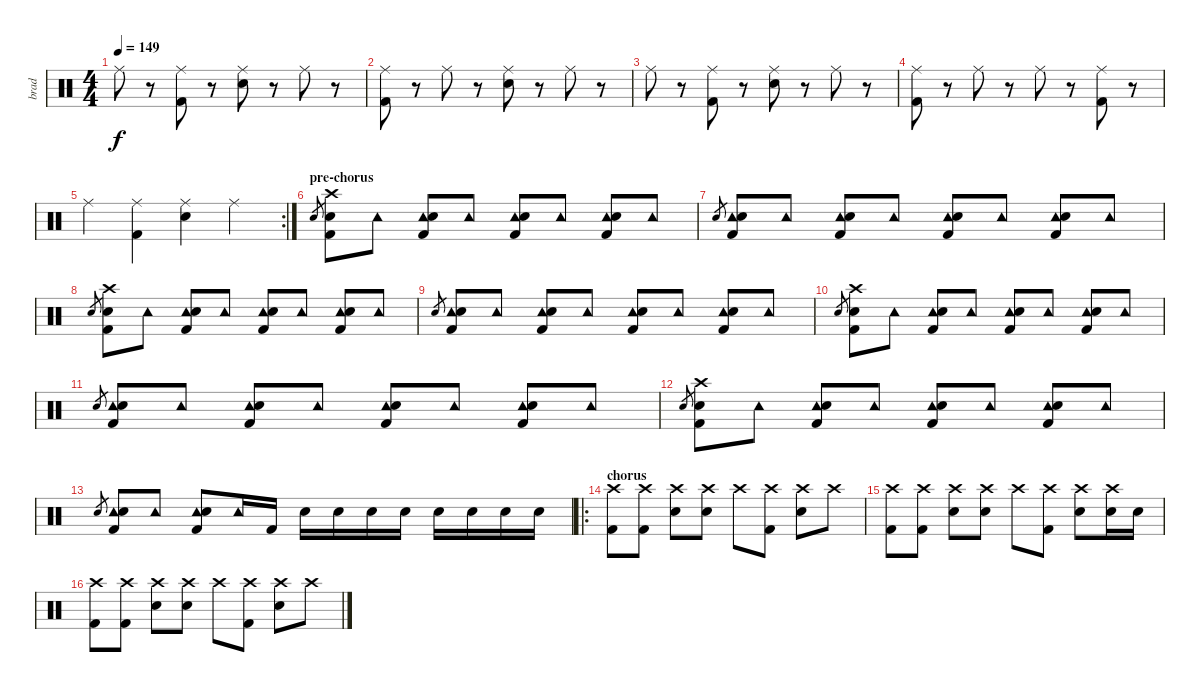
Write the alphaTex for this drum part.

\track ("brad" "brad") {instrument percussion}
\staff {score}
\articulation defaults
\ts (4 4)
\tempo 149
\clef neutral
\ks c "Ride (middle)".8{dy f}
r.8 ("Ride (middle)" "Kick (hit) 2").8 r.8 ("Ride (middle)" "Electric Snare (hit)").8 r.8 "Ride (middle)".8 r.8 |
("Ride (middle)" "Kick (hit) 2").8 r.8 "Ride (middle)".8 r.8 ("Ride (middle)" "Electric Snare (hit)").8 r.8 "Ride (middle)".8 r.8 |
"Ride (middle)".8 r.8 ("Ride (middle)" "Kick (hit) 2").8 r.8 ("Ride (middle)" "Electric Snare (hit)").8 r.8 "Ride (middle)".8 r.8 |
("Ride (middle)" "Kick (hit) 2").8 r.8 "Ride (middle)".8 r.8 "Ride (middle)".8 r.8 ("Ride (middle)" "Kick (hit) 2").8 r.8 |
\rc 2 "Ride (middle)".4
("Ride (middle)" "Kick (hit) 2").4 ("Ride (middle)" "Electric Snare (hit)").4 "Ride (middle)".4 |
\section ("" "pre-chorus")
"Electric Snare (hit)".8{gr} ("Crash high (hit)" "Electric Snare (hit)" "Kick (hit) 2").8 "Tambourine (hit)".8 ("Tambourine (hit)" "Electric Snare (hit)" "Kick (hit) 2").8 "Tambourine (hit)".8 ("Tambourine (hit)" "Electric Snare (hit)" "Kick (hit) 2").8 "Tambourine (hit)".8 ("Tambourine (hit)" "Electric Snare (hit)" "Kick (hit) 2").8 "Tambourine (hit)".8 |
"Electric Snare (hit)".8{gr} ("Tambourine (hit)" "Electric Snare (hit)" "Kick (hit) 2").8 "Tambourine (hit)".8 ("Tambourine (hit)" "Electric Snare (hit)" "Kick (hit) 2").8 "Tambourine (hit)".8 ("Tambourine (hit)" "Electric Snare (hit)" "Kick (hit) 2").8 "Tambourine (hit)".8 ("Tambourine (hit)" "Electric Snare (hit)" "Kick (hit) 2").8 "Tambourine (hit)".8 |
"Electric Snare (hit)".8{gr} ("Crash high (hit)" "Electric Snare (hit)" "Kick (hit) 2").8 "Tambourine (hit)".8 ("Tambourine (hit)" "Electric Snare (hit)" "Kick (hit) 2").8 "Tambourine (hit)".8 ("Tambourine (hit)" "Electric Snare (hit)" "Kick (hit) 2").8 "Tambourine (hit)".8 ("Tambourine (hit)" "Electric Snare (hit)" "Kick (hit) 2").8 "Tambourine (hit)".8 |
"Electric Snare (hit)".8{gr} ("Tambourine (hit)" "Electric Snare (hit)" "Kick (hit) 2").8 "Tambourine (hit)".8 ("Tambourine (hit)" "Electric Snare (hit)" "Kick (hit) 2").8 "Tambourine (hit)".8 ("Tambourine (hit)" "Electric Snare (hit)" "Kick (hit) 2").8 "Tambourine (hit)".8 ("Tambourine (hit)" "Electric Snare (hit)" "Kick (hit) 2").8 "Tambourine (hit)".8 |
"Electric Snare (hit)".8{gr} ("Crash high (hit)" "Electric Snare (hit)" "Kick (hit) 2").8 "Tambourine (hit)".8 ("Tambourine (hit)" "Electric Snare (hit)" "Kick (hit) 2").8 "Tambourine (hit)".8 ("Tambourine (hit)" "Electric Snare (hit)" "Kick (hit) 2").8 "Tambourine (hit)".8 ("Tambourine (hit)" "Electric Snare (hit)" "Kick (hit) 2").8 "Tambourine (hit)".8 |
"Electric Snare (hit)".8{gr} ("Tambourine (hit)" "Electric Snare (hit)" "Kick (hit) 2").8 "Tambourine (hit)".8 ("Tambourine (hit)" "Electric Snare (hit)" "Kick (hit) 2").8 "Tambourine (hit)".8 ("Tambourine (hit)" "Electric Snare (hit)" "Kick (hit) 2").8 "Tambourine (hit)".8 ("Tambourine (hit)" "Electric Snare (hit)" "Kick (hit) 2").8 "Tambourine (hit)".8 |
"Electric Snare (hit)".8{gr} ("Crash high (hit)" "Electric Snare (hit)" "Kick (hit) 2").8 "Tambourine (hit)".8 ("Tambourine (hit)" "Electric Snare (hit)" "Kick (hit) 2").8 "Tambourine (hit)".8 ("Tambourine (hit)" "Electric Snare (hit)" "Kick (hit) 2").8 "Tambourine (hit)".8 ("Tambourine (hit)" "Electric Snare (hit)" "Kick (hit) 2").8 "Tambourine (hit)".8 |
"Electric Snare (hit)".8{gr} ("Tambourine (hit)" "Electric Snare (hit)" "Kick (hit) 2").8 "Tambourine (hit)".8 ("Tambourine (hit)" "Electric Snare (hit)" "Kick (hit) 2").8 "Tambourine (hit)".16 "Kick (hit) 2".16 "Electric Snare (hit)".16 "Electric Snare (hit)".16 "Electric Snare (hit)".16 "Electric Snare (hit)".16 "Electric Snare (hit)".16 "Electric Snare (hit)".16 "Electric Snare (hit)".16 "Electric Snare (hit)".16 |
\ro
\section ("" "chorus")
("Crash high (hit)" "Kick (hit) 2").8 ("Crash high (hit)" "Kick (hit) 2").8 ("Crash high (hit)" "Electric Snare (hit)").8 ("Crash high (hit)" "Electric Snare (hit)").8 "Crash high (hit)".8 ("Crash high (hit)" "Kick (hit) 2").8 ("Crash high (hit)" "Electric Snare (hit)").8 "Crash high (hit)".8 |
("Crash high (hit)" "Kick (hit) 2").8 ("Crash high (hit)" "Kick (hit) 2").8 ("Crash high (hit)" "Electric Snare (hit)").8 ("Crash high (hit)" "Electric Snare (hit)").8 "Crash high (hit)".8 ("Crash high (hit)" "Kick (hit) 2").8 ("Crash high (hit)" "Electric Snare (hit)").8 ("Crash high (hit)" "Electric Snare (hit)").16 "Electric Snare (hit)".16 |
("Crash high (hit)" "Kick (hit) 2").8 ("Crash high (hit)" "Kick (hit) 2").8 ("Crash high (hit)" "Electric Snare (hit)").8 ("Crash high (hit)" "Electric Snare (hit)").8 "Crash high (hit)".8 ("Crash high (hit)" "Kick (hit) 2").8 ("Crash high (hit)" "Electric Snare (hit)").8 "Crash high (hit)".8
